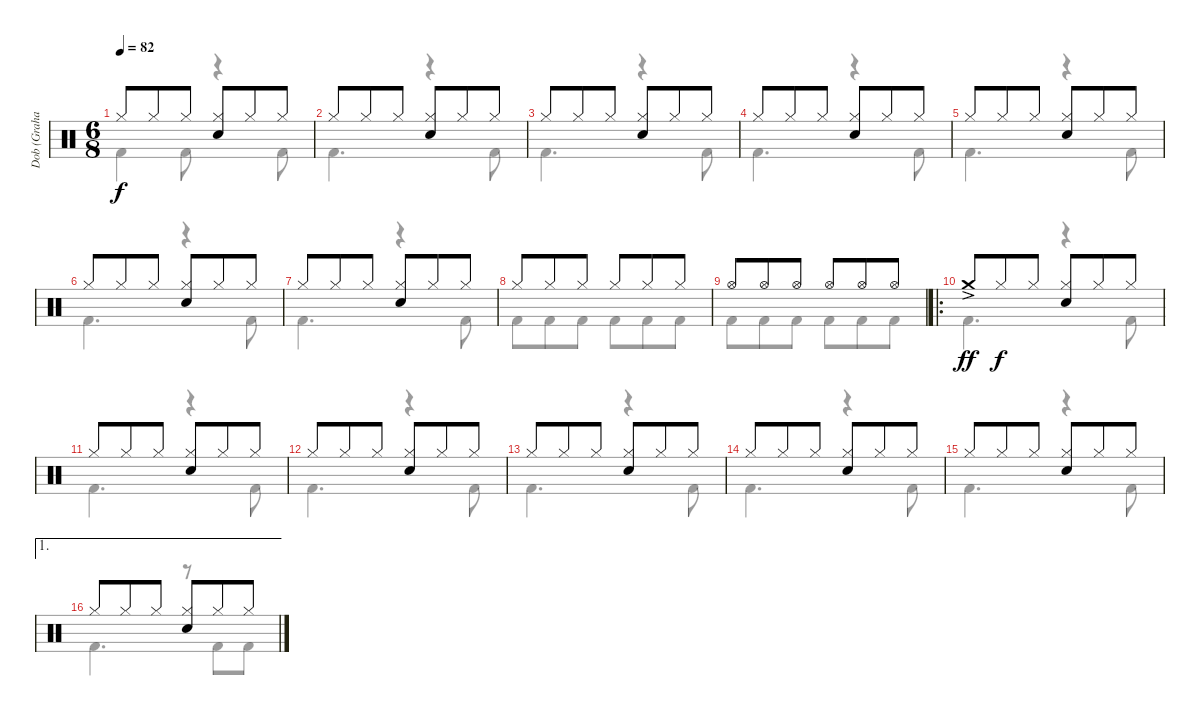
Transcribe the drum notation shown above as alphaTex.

\track ("Dob (Graham Walker)" "Dob (Graha") {instrument percussion}
\staff {score}
\articulation defaults
\voice
\ts (6 8)
\tempo 82
\clef neutral
\ks c "Hi-Hat (closed)".8{dy f} "Hi-Hat (closed)".8 "Hi-Hat (closed)".8
("Hi-Hat (closed)" "Electric Snare (hit)").8 "Hi-Hat (closed)".8 "Hi-Hat (closed)".8 |
"Hi-Hat (closed)".8 "Hi-Hat (closed)".8 "Hi-Hat (closed)".8 ("Hi-Hat (closed)" "Electric Snare (hit)").8 "Hi-Hat (closed)".8 "Hi-Hat (closed)".8 |
"Hi-Hat (closed)".8 "Hi-Hat (closed)".8 "Hi-Hat (closed)".8 ("Hi-Hat (closed)" "Electric Snare (hit)").8 "Hi-Hat (closed)".8 "Hi-Hat (closed)".8 |
"Hi-Hat (closed)".8 "Hi-Hat (closed)".8 "Hi-Hat (closed)".8 ("Hi-Hat (closed)" "Electric Snare (hit)").8 "Hi-Hat (closed)".8 "Hi-Hat (closed)".8 |
"Hi-Hat (closed)".8 "Hi-Hat (closed)".8 "Hi-Hat (closed)".8 ("Hi-Hat (closed)" "Electric Snare (hit)").8 "Hi-Hat (closed)".8 "Hi-Hat (closed)".8 |
"Hi-Hat (closed)".8 "Hi-Hat (closed)".8 "Hi-Hat (closed)".8 ("Hi-Hat (closed)" "Electric Snare (hit)").8 "Hi-Hat (closed)".8 "Hi-Hat (closed)".8 |
"Hi-Hat (closed)".8 "Hi-Hat (closed)".8 "Hi-Hat (closed)".8 ("Hi-Hat (closed)" "Electric Snare (hit)").8 "Hi-Hat (closed)".8 "Hi-Hat (closed)".8 |
"Hi-Hat (closed)".8 "Hi-Hat (closed)".8 "Hi-Hat (closed)".8 "Hi-Hat (closed)".8 "Hi-Hat (closed)".8 "Hi-Hat (closed)".8 |
"Hi-Hat (open)".8 "Hi-Hat (open)".8 "Hi-Hat (open)".8 "Hi-Hat (open)".8 "Hi-Hat (open)".8 "Hi-Hat (open)".8 |
\ro "Crash medium (hit)"{ac}.8{dy ff} "Hi-Hat (closed)".8{dy f} "Hi-Hat (closed)".8
("Hi-Hat (closed)" "Electric Snare (hit)").8 "Hi-Hat (closed)".8 "Hi-Hat (closed)".8 |
"Hi-Hat (closed)".8 "Hi-Hat (closed)".8 "Hi-Hat (closed)".8 ("Hi-Hat (closed)" "Electric Snare (hit)").8 "Hi-Hat (closed)".8 "Hi-Hat (closed)".8 |
"Hi-Hat (closed)".8 "Hi-Hat (closed)".8 "Hi-Hat (closed)".8 ("Hi-Hat (closed)" "Electric Snare (hit)").8 "Hi-Hat (closed)".8 "Hi-Hat (closed)".8 |
"Hi-Hat (closed)".8 "Hi-Hat (closed)".8 "Hi-Hat (closed)".8 ("Hi-Hat (closed)" "Electric Snare (hit)").8 "Hi-Hat (closed)".8 "Hi-Hat (closed)".8 |
"Hi-Hat (closed)".8 "Hi-Hat (closed)".8 "Hi-Hat (closed)".8 ("Hi-Hat (closed)" "Electric Snare (hit)").8 "Hi-Hat (closed)".8 "Hi-Hat (closed)".8 |
"Hi-Hat (closed)".8 "Hi-Hat (closed)".8 "Hi-Hat (closed)".8 ("Hi-Hat (closed)" "Electric Snare (hit)").8 "Hi-Hat (closed)".8 "Hi-Hat (closed)".8 |
\ae 1 "Hi-Hat (closed)".8 "Hi-Hat (closed)".8 "Hi-Hat (closed)".8
("Hi-Hat (closed)" "Electric Snare (hit)").8 "Hi-Hat (closed)".8 "Hi-Hat (closed)".8
\voice
\clef neutral
\ottava regular
\simile none
\ks c "Kick (hit) 2".4{dy f} "Kick (hit) 2".8
r.4 "Kick (hit) 2".8 |
"Kick (hit) 2".4{d} r.4 "Kick (hit) 2".8 |
"Kick (hit) 2".4{d} r.4 "Kick (hit) 2".8 |
"Kick (hit) 2".4{d} r.4 "Kick (hit) 2".8 |
"Kick (hit) 2".4{d} r.4 "Kick (hit) 2".8 |
"Kick (hit) 2".4{d} r.4 "Kick (hit) 2".8 |
"Kick (hit) 2".4{d} r.4 "Kick (hit) 2".8 |
"Kick (hit) 2".8 "Kick (hit) 2".8 "Kick (hit) 2".8 "Kick (hit) 2".8 "Kick (hit) 2".8 "Kick (hit) 2".8 |
"Kick (hit) 2".8 "Kick (hit) 2".8 "Kick (hit) 2".8 "Kick (hit) 2".8 "Kick (hit) 2".8 "Kick (hit) 2".8 |
"Kick (hit) 2".4{d} r.4 "Kick (hit) 2".8 |
"Kick (hit) 2".4{d} r.4 "Kick (hit) 2".8 |
"Kick (hit) 2".4{d} r.4 "Kick (hit) 2".8 |
"Kick (hit) 2".4{d} r.4 "Kick (hit) 2".8 |
"Kick (hit) 2".4{d} r.4 "Kick (hit) 2".8 |
"Kick (hit) 2".4{d} r.4 "Kick (hit) 2".8 |
"Kick (hit) 2".4{d} r.8 "Kick (hit) 2".8 "Kick (hit) 2".8
